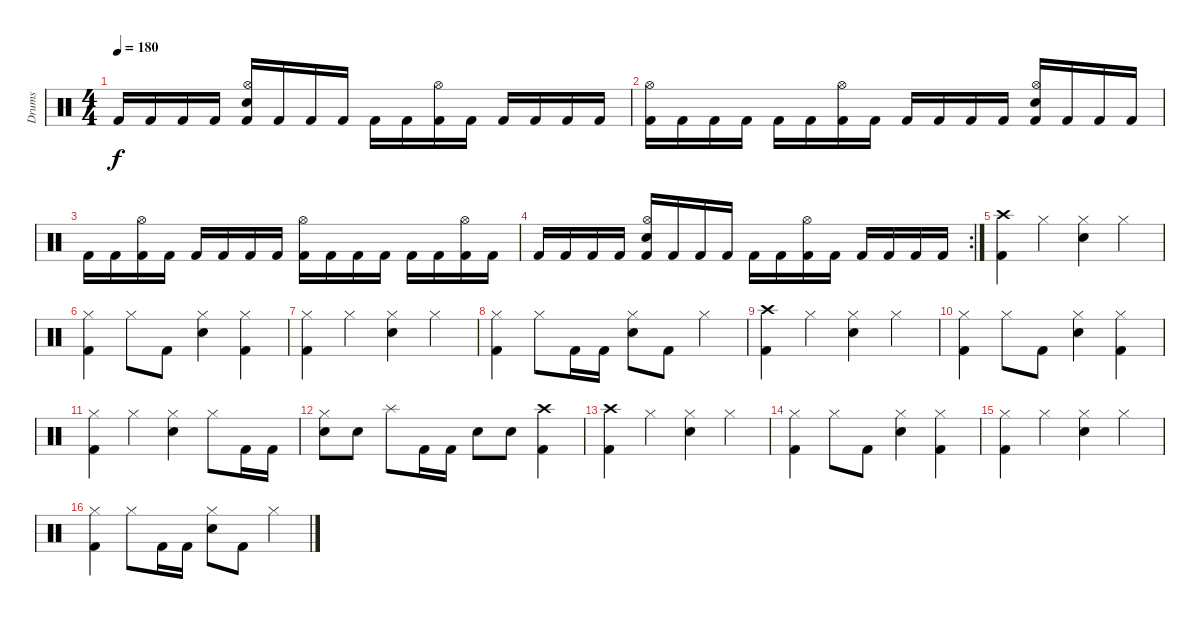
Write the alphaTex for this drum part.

\track ("Drums" "Drums") {instrument percussion}
\staff {score}
\articulation defaults
\ts (4 4)
\tempo 180
\clef neutral
\ks c "Kick (hit) 2".16{dy f} "Kick (hit) 2".16 "Kick (hit) 2".16 "Kick (hit) 2".16
("Hi-Hat (open)" "Electric Snare (hit)" "Kick (hit) 2").16 "Kick (hit) 2".16 "Kick (hit) 2".16 "Kick (hit) 2".16 "Kick (hit) 2".16 "Kick (hit) 2".16 ("Hi-Hat (open)" "Kick (hit) 2").16 "Kick (hit) 2".16 "Kick (hit) 2".16 "Kick (hit) 2".16 "Kick (hit) 2".16 "Kick (hit) 2".16 |
("Hi-Hat (open)" "Kick (hit) 2").16 "Kick (hit) 2".16 "Kick (hit) 2".16 "Kick (hit) 2".16 "Kick (hit) 2".16 "Kick (hit) 2".16 ("Hi-Hat (open)" "Kick (hit) 2").16 "Kick (hit) 2".16 "Kick (hit) 2".16 "Kick (hit) 2".16 "Kick (hit) 2".16 "Kick (hit) 2".16 ("Hi-Hat (open)" "Electric Snare (hit)" "Kick (hit) 2").16 "Kick (hit) 2".16 "Kick (hit) 2".16 "Kick (hit) 2".16 |
"Kick (hit) 2".16 "Kick (hit) 2".16 ("Hi-Hat (open)" "Kick (hit) 2").16 "Kick (hit) 2".16 "Kick (hit) 2".16 "Kick (hit) 2".16 "Kick (hit) 2".16 "Kick (hit) 2".16 ("Hi-Hat (open)" "Kick (hit) 2").16 "Kick (hit) 2".16 "Kick (hit) 2".16 "Kick (hit) 2".16 "Kick (hit) 2".16 "Kick (hit) 2".16 ("Hi-Hat (open)" "Kick (hit) 2").16 "Kick (hit) 2".16 |
\rc 2 "Kick (hit) 2".16 "Kick (hit) 2".16 "Kick (hit) 2".16 "Kick (hit) 2".16
("Hi-Hat (open)" "Electric Snare (hit)" "Kick (hit) 2").16 "Kick (hit) 2".16 "Kick (hit) 2".16 "Kick (hit) 2".16 "Kick (hit) 2".16 "Kick (hit) 2".16 ("Hi-Hat (open)" "Kick (hit) 2").16 "Kick (hit) 2".16 "Kick (hit) 2".16 "Kick (hit) 2".16 "Kick (hit) 2".16 "Kick (hit) 2".16 |
("Crash high (hit)" "Kick (hit) 2").4 "Hi-Hat (closed)".4 ("Hi-Hat (closed)" "Electric Snare (hit)").4 "Hi-Hat (closed)".4 |
("Hi-Hat (closed)" "Kick (hit) 2").4 "Hi-Hat (closed)".8 "Kick (hit) 2".8 ("Hi-Hat (closed)" "Electric Snare (hit)").4 ("Hi-Hat (closed)" "Kick (hit) 2").4 |
("Hi-Hat (closed)" "Kick (hit) 2").4 "Hi-Hat (closed)".4 ("Hi-Hat (closed)" "Electric Snare (hit)").4 "Hi-Hat (closed)".4 |
("Hi-Hat (closed)" "Kick (hit) 2").4 "Hi-Hat (closed)".8 "Kick (hit) 2".16 "Kick (hit) 2".16 ("Hi-Hat (closed)" "Electric Snare (hit)").8 "Kick (hit) 2".8 "Hi-Hat (closed)".4 |
("Crash high (hit)" "Kick (hit) 2").4 "Hi-Hat (closed)".4 ("Hi-Hat (closed)" "Electric Snare (hit)").4 "Hi-Hat (closed)".4 |
("Hi-Hat (closed)" "Kick (hit) 2").4 "Hi-Hat (closed)".8 "Kick (hit) 2".8 ("Hi-Hat (closed)" "Electric Snare (hit)").4 ("Hi-Hat (closed)" "Kick (hit) 2").4 |
("Hi-Hat (closed)" "Kick (hit) 2").4 "Hi-Hat (closed)".4 ("Hi-Hat (closed)" "Electric Snare (hit)").4 "Hi-Hat (closed)".8 "Kick (hit) 2".16 "Kick (hit) 2".16 |
("Hi-Hat (closed)" "Electric Snare (hit)").8 "Electric Snare (hit)".8 "Splash (hit)".8 "Kick (hit) 2".16 "Kick (hit) 2".16 "Electric Snare (hit)".8 "Electric Snare (hit)".8 ("Crash high (hit)" "Kick (hit) 2").4 |
("Crash high (hit)" "Kick (hit) 2").4 "Hi-Hat (closed)".4 ("Hi-Hat (closed)" "Electric Snare (hit)").4 "Hi-Hat (closed)".4 |
("Hi-Hat (closed)" "Kick (hit) 2").4 "Hi-Hat (closed)".8 "Kick (hit) 2".8 ("Hi-Hat (closed)" "Electric Snare (hit)").4 ("Hi-Hat (closed)" "Kick (hit) 2").4 |
("Hi-Hat (closed)" "Kick (hit) 2").4 "Hi-Hat (closed)".4 ("Hi-Hat (closed)" "Electric Snare (hit)").4 "Hi-Hat (closed)".4 |
("Hi-Hat (closed)" "Kick (hit) 2").4 "Hi-Hat (closed)".8 "Kick (hit) 2".16 "Kick (hit) 2".16 ("Hi-Hat (closed)" "Electric Snare (hit)").8 "Kick (hit) 2".8 "Hi-Hat (closed)".4
